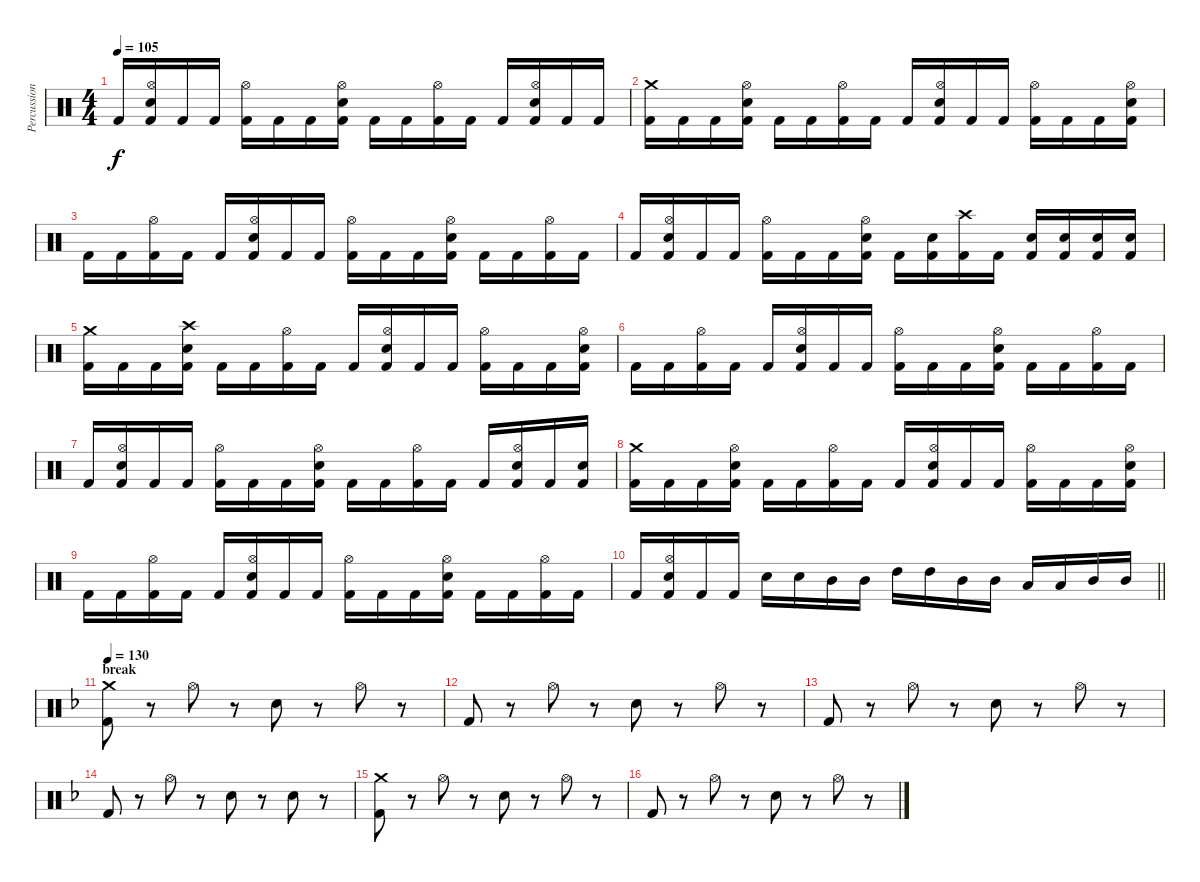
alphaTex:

\track ("Percussions" "Percussion") {instrument percussion}
\staff {score}
\articulation defaults
\ts (4 4)
\tempo 105
\clef neutral
\ks c "Kick (hit) 2".16{dy f}
("Hi-Hat (open)" "Snare (hit) 2" "Kick (hit) 2").16 "Kick (hit) 2".16 "Kick (hit) 2".16 ("Hi-Hat (open)" "Kick (hit) 2").16 "Kick (hit) 2".16 "Kick (hit) 2".16 ("Hi-Hat (open)" "Snare (hit) 2" "Kick (hit) 2").16 "Kick (hit) 2".16 "Kick (hit) 2".16 ("Hi-Hat (open)" "Kick (hit) 2").16 "Kick (hit) 2".16 "Kick (hit) 2".16 ("Hi-Hat (open)" "Snare (hit) 2" "Kick (hit) 2").16 "Kick (hit) 2".16 "Kick (hit) 2".16 |
("Crash medium (hit)" "Kick (hit) 2").16 "Kick (hit) 2".16 "Kick (hit) 2".16 ("Hi-Hat (open)" "Snare (hit) 2" "Kick (hit) 2").16 "Kick (hit) 2".16 "Kick (hit) 2".16 ("Hi-Hat (open)" "Kick (hit) 2").16 "Kick (hit) 2".16 "Kick (hit) 2".16 ("Hi-Hat (open)" "Snare (hit) 2" "Kick (hit) 2").16 "Kick (hit) 2".16 "Kick (hit) 2".16 ("Hi-Hat (open)" "Kick (hit) 2").16 "Kick (hit) 2".16 "Kick (hit) 2".16 ("Hi-Hat (open)" "Snare (hit) 2" "Kick (hit) 2").16 |
"Kick (hit) 2".16 "Kick (hit) 2".16 ("Hi-Hat (open)" "Kick (hit) 2").16 "Kick (hit) 2".16 "Kick (hit) 2".16 ("Hi-Hat (open)" "Snare (hit) 2" "Kick (hit) 2").16 "Kick (hit) 2".16 "Kick (hit) 2".16 ("Hi-Hat (open)" "Kick (hit) 2").16 "Kick (hit) 2".16 "Kick (hit) 2".16 ("Hi-Hat (open)" "Snare (hit) 2" "Kick (hit) 2").16 "Kick (hit) 2".16 "Kick (hit) 2".16 ("Hi-Hat (open)" "Kick (hit) 2").16 "Kick (hit) 2".16 |
"Kick (hit) 2".16 ("Hi-Hat (open)" "Snare (hit) 2" "Kick (hit) 2").16 "Kick (hit) 2".16 "Kick (hit) 2".16 ("Hi-Hat (open)" "Kick (hit) 2").16 "Kick (hit) 2".16 "Kick (hit) 2".16 ("Hi-Hat (open)" "Snare (hit) 2" "Kick (hit) 2").16 "Kick (hit) 2".16 ("Snare (hit) 2" "Kick (hit) 2").16 ("Crash high (hit)" "Kick (hit) 2").16 "Kick (hit) 2".16 ("Snare (hit) 2" "Kick (hit) 2").16 ("Snare (hit) 2" "Kick (hit) 2").16 ("Snare (hit) 2" "Kick (hit) 2").16 ("Snare (hit) 2" "Kick (hit) 2").16 |
("Crash medium (hit)" "Kick (hit) 2").16 "Kick (hit) 2".16 "Kick (hit) 2".16 ("Crash high (hit)" "Snare (hit) 2" "Kick (hit) 2").16 "Kick (hit) 2".16 "Kick (hit) 2".16 ("Hi-Hat (open)" "Kick (hit) 2").16 "Kick (hit) 2".16 "Kick (hit) 2".16 ("Hi-Hat (open)" "Snare (hit) 2" "Kick (hit) 2").16 "Kick (hit) 2".16 "Kick (hit) 2".16 ("Hi-Hat (open)" "Kick (hit) 2").16 "Kick (hit) 2".16 "Kick (hit) 2".16 ("Hi-Hat (open)" "Snare (hit) 2" "Kick (hit) 2").16 |
"Kick (hit) 2".16 "Kick (hit) 2".16 ("Hi-Hat (open)" "Kick (hit) 2").16 "Kick (hit) 2".16 "Kick (hit) 2".16 ("Hi-Hat (open)" "Snare (hit) 2" "Kick (hit) 2").16 "Kick (hit) 2".16 "Kick (hit) 2".16 ("Hi-Hat (open)" "Kick (hit) 2").16 "Kick (hit) 2".16 "Kick (hit) 2".16 ("Hi-Hat (open)" "Snare (hit) 2" "Kick (hit) 2").16 "Kick (hit) 2".16 "Kick (hit) 2".16 ("Hi-Hat (open)" "Kick (hit) 2").16 "Kick (hit) 2".16 |
"Kick (hit) 2".16 ("Hi-Hat (open)" "Snare (hit) 2" "Kick (hit) 2").16 "Kick (hit) 2".16 "Kick (hit) 2".16 ("Hi-Hat (open)" "Kick (hit) 2").16 "Kick (hit) 2".16 "Kick (hit) 2".16 ("Hi-Hat (open)" "Snare (hit) 2" "Kick (hit) 2").16 "Kick (hit) 2".16 "Kick (hit) 2".16 ("Hi-Hat (open)" "Kick (hit) 2").16 "Kick (hit) 2".16 "Kick (hit) 2".16 ("Hi-Hat (open)" "Snare (hit) 2" "Kick (hit) 2").16 "Kick (hit) 2".16 ("Snare (hit) 2" "Kick (hit) 2").16 |
("Crash medium (hit)" "Kick (hit) 2").16 "Kick (hit) 2".16 "Kick (hit) 2".16 ("Hi-Hat (open)" "Snare (hit) 2" "Kick (hit) 2").16 "Kick (hit) 2".16 "Kick (hit) 2".16 ("Hi-Hat (open)" "Kick (hit) 2").16 "Kick (hit) 2".16 "Kick (hit) 2".16 ("Hi-Hat (open)" "Snare (hit) 2" "Kick (hit) 2").16 "Kick (hit) 2".16 "Kick (hit) 2".16 ("Hi-Hat (open)" "Kick (hit) 2").16 "Kick (hit) 2".16 "Kick (hit) 2".16 ("Hi-Hat (open)" "Snare (hit) 2" "Kick (hit) 2").16 |
"Kick (hit) 2".16 "Kick (hit) 2".16 ("Hi-Hat (open)" "Kick (hit) 2").16 "Kick (hit) 2".16 "Kick (hit) 2".16 ("Hi-Hat (open)" "Snare (hit) 2" "Kick (hit) 2").16 "Kick (hit) 2".16 "Kick (hit) 2".16 ("Hi-Hat (open)" "Kick (hit) 2").16 "Kick (hit) 2".16 "Kick (hit) 2".16 ("Hi-Hat (open)" "Snare (hit) 2" "Kick (hit) 2").16 "Kick (hit) 2".16 "Kick (hit) 2".16 ("Hi-Hat (open)" "Kick (hit) 2").16 "Kick (hit) 2".16 |
\barLineRight lightlight "Kick (hit) 2".16
("Hi-Hat (open)" "Snare (hit) 2" "Kick (hit) 2").16 "Kick (hit) 2".16 "Kick (hit) 2".16 "Snare (hit) 2".16 "Snare (hit) 2".16 "Mid Tom (hit)".16 "Mid Tom (hit)".16 "High Tom (hit)".16 "High Tom (hit)".16 "Mid Tom (hit)".16 "Mid Tom (hit)".16 "Low Tom (hit)".16 "Low Tom (hit)".16 "Mid Tom (hit)".16 "Mid Tom (hit)".16 |
\section ("" "break")
\tempo 130
\ks dminor
("Crash medium (hit)" "Kick (hit) 2").8 r.8 "Hi-Hat (open)".8 r.8 "Snare (hit) 2".8 r.8 "Hi-Hat (open)".8 r.8 |
"Kick (hit) 2".8 r.8 "Hi-Hat (open)".8 r.8 "Snare (hit) 2".8 r.8 "Hi-Hat (open)".8 r.8 |
"Kick (hit) 2".8 r.8 "Hi-Hat (open)".8 r.8 "Snare (hit) 2".8 r.8 "Hi-Hat (open)".8 r.8 |
"Kick (hit) 2".8 r.8 "Hi-Hat (open)".8 r.8 "Snare (hit) 2".8 r.8 "Snare (hit) 2".8 r.8 |
("Crash medium (hit)" "Kick (hit) 2").8 r.8 "Hi-Hat (open)".8 r.8 "Snare (hit) 2".8 r.8 "Hi-Hat (open)".8 r.8 |
"Kick (hit) 2".8 r.8 "Hi-Hat (open)".8 r.8 "Snare (hit) 2".8 r.8 "Hi-Hat (open)".8 r.8
